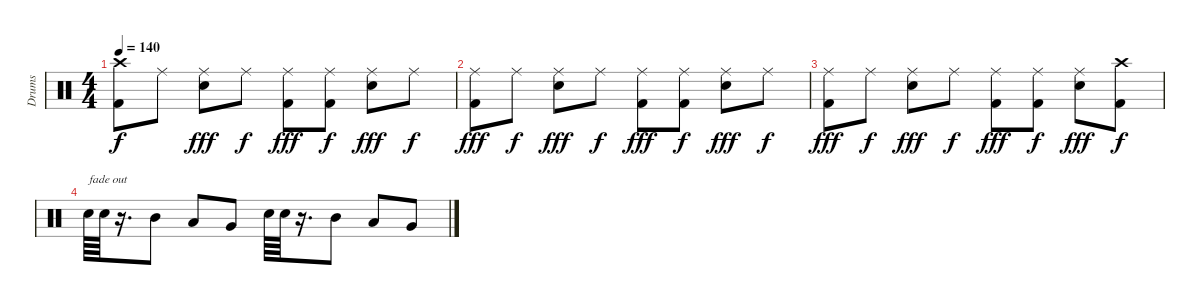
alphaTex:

\track ("Drums" "Drums") {instrument percussion}
\staff {score}
\articulation defaults
\ts (4 4)
\tempo 140
\clef neutral
\ks c
("Crash high (hit)" "Kick (hit) 2").8{dy f} "Ride (middle)".8 ("Ride (middle)" "Snare (hit) 2").8{dy fff} "Ride (middle)".8{dy f} ("Ride (middle)" "Kick (hit) 2").8{dy fff} ("Ride (middle)" "Kick (hit) 2").8{dy f} ("Ride (middle)" "Snare (hit) 2").8{dy fff} "Ride (middle)".8{dy f} |
("Ride (middle)" "Kick (hit) 2").8{dy fff} "Ride (middle)".8{dy f} ("Ride (middle)" "Snare (hit) 2").8{dy fff} "Ride (middle)".8{dy f} ("Ride (middle)" "Kick (hit) 2").8{dy fff} ("Ride (middle)" "Kick (hit) 2").8{dy f} ("Ride (middle)" "Snare (hit) 2").8{dy fff} "Ride (middle)".8{dy f} |
("Ride (middle)" "Kick (hit) 2").8{dy fff} "Ride (middle)".8{dy f} ("Ride (middle)" "Snare (hit) 2").8{dy fff} "Ride (middle)".8{dy f} ("Ride (middle)" "Kick (hit) 2").8{dy fff} ("Ride (middle)" "Kick (hit) 2").8{dy f} ("Ride (middle)" "Snare (hit) 2").8{dy fff} ("Crash high (hit)" "Kick (hit) 2").8{dy f} |
"Snare (hit) 2".64{txt "fade out"} "Snare (hit) 2".64 r.16{d} "Mid Tom (hit)".8 "Low Tom (hit)".8 "Very Low Tom (hit)".8 "Snare (hit) 2".64 "Snare (hit) 2".64 r.16{d} "Mid Tom (hit)".8 "Low Tom (hit)".8 "Very Low Tom (hit)".8
